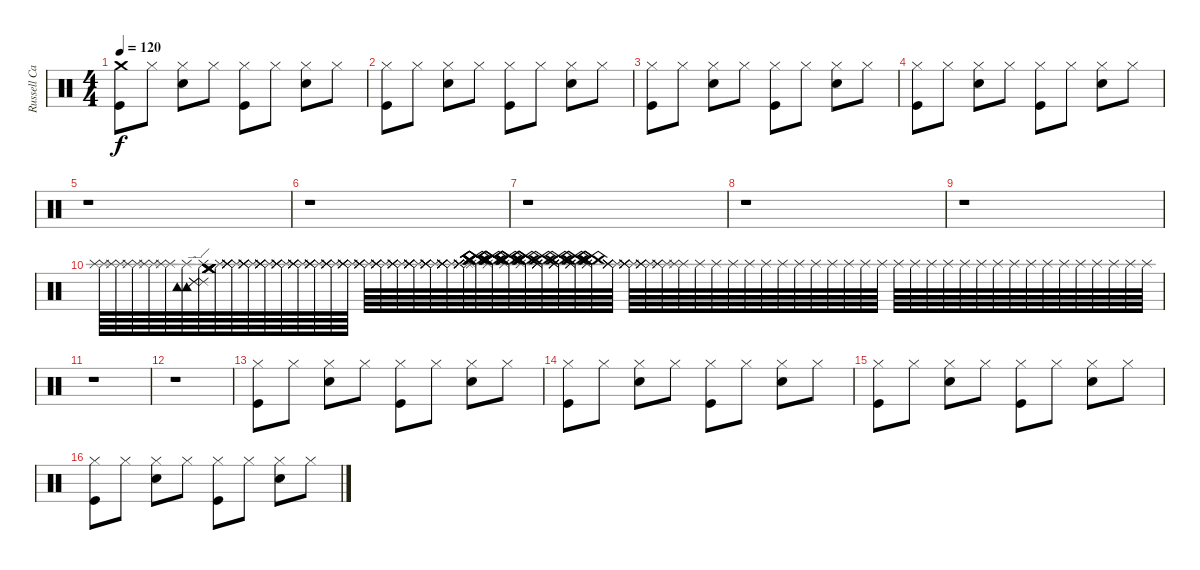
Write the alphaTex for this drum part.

\track ("Russell Cannon" "Russell Ca") {instrument percussion}
\staff {score}
\articulation defaults
\ts (4 4)
\tempo 120
\clef neutral
\ks c
("Crash medium (hit)" "Kick (hit)").8{dy f} "Hi-Hat (closed)".8 ("Hi-Hat (closed)" "Electric Snare (hit)").8 "Hi-Hat (closed)".8 ("Hi-Hat (closed)" "Kick (hit)").8 "Hi-Hat (closed)".8 ("Hi-Hat (closed)" "Electric Snare (hit)").8 "Hi-Hat (closed)".8 |
("Hi-Hat (closed)" "Kick (hit)").8 "Hi-Hat (closed)".8 ("Hi-Hat (closed)" "Electric Snare (hit)").8 "Hi-Hat (closed)".8 ("Hi-Hat (closed)" "Kick (hit)").8 "Hi-Hat (closed)".8 ("Hi-Hat (closed)" "Electric Snare (hit)").8 "Hi-Hat (closed)".8 |
("Hi-Hat (closed)" "Kick (hit)").8 "Hi-Hat (closed)".8 ("Hi-Hat (closed)" "Electric Snare (hit)").8 "Hi-Hat (closed)".8 ("Hi-Hat (closed)" "Kick (hit)").8 "Hi-Hat (closed)".8 ("Hi-Hat (closed)" "Electric Snare (hit)").8 "Hi-Hat (closed)".8 |
("Hi-Hat (closed)" "Kick (hit)").8 "Hi-Hat (closed)".8 ("Hi-Hat (closed)" "Electric Snare (hit)").8 "Hi-Hat (closed)".8 ("Hi-Hat (closed)" "Kick (hit)").8 "Hi-Hat (closed)".8 ("Hi-Hat (closed)" "Electric Snare (hit)").8 "Hi-Hat (closed)".8 |
r.1 |
r.1 |
r.1 |
r.1 |
r.1 |
("Splash (hit)" "Splash (hit)").64 ("Splash (hit)" "Splash (hit)").64 ("Splash (hit)" "Splash (hit)").64 ("Splash (hit)" "Splash (hit)").64 ("Splash (hit)" "Splash (hit)").64 ("Splash (hit)" "Tambourine (hit)" "Tambourine (hit)").64 ("Splash (hit)" "Ride (edge) 2" "Ride (edge) 2" "Ride (edge) 2").64 ("Splash (hit)" "Crash medium (hit)" "Crash medium (hit)" "Crash medium (hit)" "Crash medium (hit)").64 ("Splash (hit)" "Splash (hit)" "Splash (hit)" "Splash (hit)" "Splash (hit)").64 ("Splash (hit)" "Splash (hit)" "Splash (hit)" "Splash (hit)" "Splash (hit)").64 ("Splash (hit)" "Splash (hit)" "Splash (hit)" "Splash (hit)" "Splash (hit)").64 ("Splash (hit)" "Splash (hit)" "Splash (hit)" "Splash (hit)" "Splash (hit)").64 ("Splash (hit)" "Splash (hit)" "Splash (hit)" "Splash (hit)" "Splash (hit)").64 ("Splash (hit)" "Splash (hit)" "Splash (hit)" "Splash (hit)" "Splash (hit)").64 ("Splash (hit)" "Splash (hit)" "Splash (hit)" "Splash (hit)" "Splash (hit)").64 ("Splash (hit)" "Splash (hit)" "Splash (hit)" "Splash (hit)" "Splash (hit)").64 ("Splash (hit)" "Splash (hit)" "Splash (hit)" "Splash (hit)" "Splash (hit)").64 ("Splash (hit)" "Splash (hit)" "Splash (hit)" "Splash (hit)" "Splash (hit)").64 ("Splash (hit)" "Splash (hit)" "Splash (hit)" "Splash (hit)" "Splash (hit)").64 ("Splash (hit)" "Splash (hit)" "Splash (hit)" "Splash (hit)" "Splash (hit)" "Splash (hit)").64 ("Splash (hit)" "Splash (hit)" "Splash (hit)" "Splash (hit)" "Splash (hit)" "Splash (hit)").64 ("Splash (hit)" "Splash (hit)" "Splash (hit)" "Splash (hit)" "Splash (hit)" "Splash (hit)").64 ("Splash (hit)" "Splash (hit)" "Splash (hit)" "Splash (hit)" "Splash (hit)" "Splash (hit)").64 ("Splash (hit)" "China (hit)" "China (hit)" "China (hit)" "China (hit)" "China (hit)").64 ("Splash (hit)" "China (hit)" "China (hit)" "China (hit)" "China (hit)" "China (hit)").64 ("Splash (hit)" "China (hit)" "China (hit)" "China (hit)" "China (hit)" "China (hit)").64 ("Splash (hit)" "China (hit)" "China (hit)" "China (hit)" "China (hit)" "China (hit)").64 ("Splash (hit)" "Splash (hit)" "Splash (hit)" "Splash (hit)" "China (hit)" "China (hit)").64 ("Splash (hit)" "Splash (hit)" "Splash (hit)" "Splash (hit)" "China (hit)" "China (hit)").64 ("Splash (hit)" "Splash (hit)" "Splash (hit)" "China (hit)" "China (hit)" "China (hit)").64 ("Splash (hit)" "Splash (hit)" "China (hit)" "China (hit)" "China (hit)" "China (hit)").64 ("Splash (hit)" "Splash (hit)" "Splash (hit)" "Splash (hit)" "Splash (hit)").64 ("Splash (hit)" "Splash (hit)" "Splash (hit)" "Splash (hit)" "Splash (hit)").64 ("Splash (hit)" "Splash (hit)" "Splash (hit)" "Splash (hit)").64 ("Splash (hit)" "Splash (hit)" "Splash (hit)").64 ("Splash (hit)" "Splash (hit)").64 "Splash (hit)".64 "Splash (hit)".64 "Splash (hit)".64 "Splash (hit)".64 "Splash (hit)".64 "Splash (hit)".64 "Splash (hit)".64 "Splash (hit)".64 "Splash (hit)".64 "Splash (hit)".64 "Splash (hit)".64 "Splash (hit)".64 "Splash (hit)".64 "Splash (hit)".64 "Splash (hit)".64 "Splash (hit)".64 "Splash (hit)".64 "Splash (hit)".64 "Splash (hit)".64 "Splash (hit)".64 "Splash (hit)".64 "Splash (hit)".64 "Splash (hit)".64 "Splash (hit)".64 "Splash (hit)".64 "Splash (hit)".64 "Splash (hit)".64 "Splash (hit)".64 |
r.1 |
r.1 |
("Hi-Hat (closed)" "Kick (hit)").8 "Hi-Hat (closed)".8 ("Hi-Hat (closed)" "Electric Snare (hit)").8 "Hi-Hat (closed)".8 ("Hi-Hat (closed)" "Kick (hit)").8 "Hi-Hat (closed)".8 ("Hi-Hat (closed)" "Electric Snare (hit)").8 "Hi-Hat (closed)".8 |
("Hi-Hat (closed)" "Kick (hit)").8 "Hi-Hat (closed)".8 ("Hi-Hat (closed)" "Electric Snare (hit)").8 "Hi-Hat (closed)".8 ("Hi-Hat (closed)" "Kick (hit)").8 "Hi-Hat (closed)".8 ("Hi-Hat (closed)" "Electric Snare (hit)").8 "Hi-Hat (closed)".8 |
("Hi-Hat (closed)" "Kick (hit)").8 "Hi-Hat (closed)".8 ("Hi-Hat (closed)" "Electric Snare (hit)").8 "Hi-Hat (closed)".8 ("Hi-Hat (closed)" "Kick (hit)").8 "Hi-Hat (closed)".8 ("Hi-Hat (closed)" "Electric Snare (hit)").8 "Hi-Hat (closed)".8 |
("Hi-Hat (closed)" "Kick (hit)").8 "Hi-Hat (closed)".8 ("Hi-Hat (closed)" "Electric Snare (hit)").8 "Hi-Hat (closed)".8 ("Hi-Hat (closed)" "Kick (hit)").8 "Hi-Hat (closed)".8 ("Hi-Hat (closed)" "Electric Snare (hit)").8 "Hi-Hat (closed)".8
